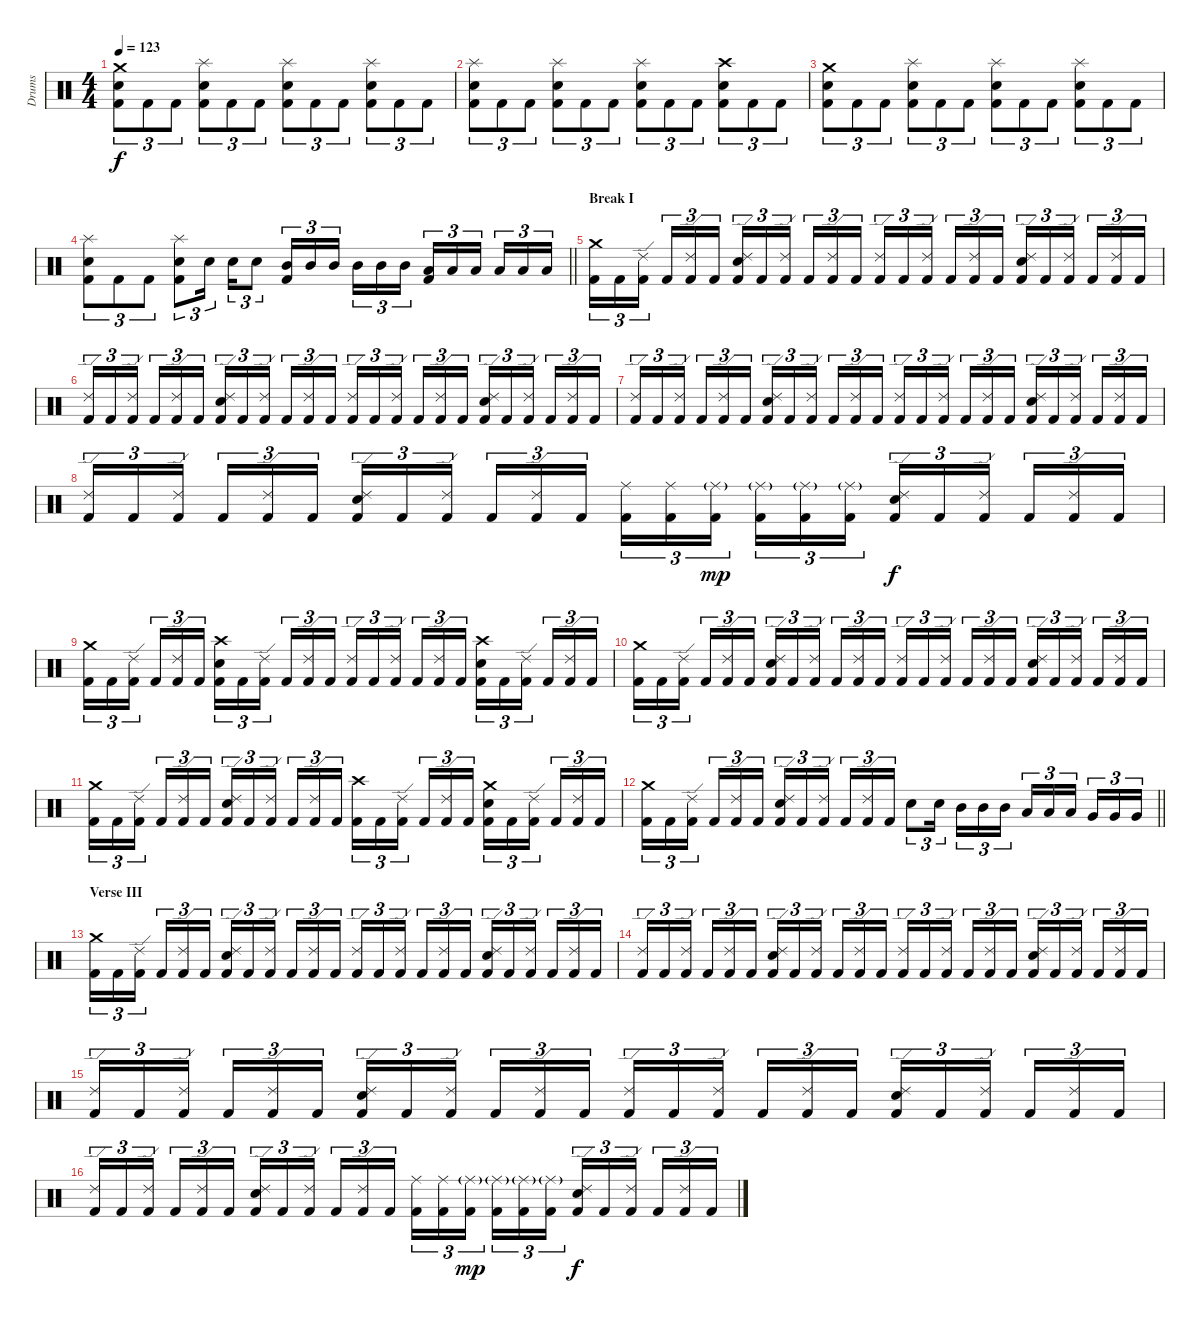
\track ("Drums" "Drums") {instrument percussion}
\staff {score}
\articulation defaults
\ts (4 4)
\tempo 123
\clef neutral
\ks c
("Kick (hit) 2" "Snare (hit) 2" "Crash medium (hit)").8{tu (3 2) dy f} "Kick (hit) 2".8{tu (3 2)} "Kick (hit) 2".8{tu (3 2)} ("Kick (hit) 2" "Snare (hit) 2" "Splash (hit)").8{tu (3 2)} "Kick (hit) 2".8{tu (3 2)} "Kick (hit) 2".8{tu (3 2)} ("Kick (hit) 2" "Snare (hit) 2" "Splash (hit)").8{tu (3 2)} "Kick (hit) 2".8{tu (3 2)} "Kick (hit) 2".8{tu (3 2)} ("Kick (hit) 2" "Snare (hit) 2" "Splash (hit)").8{tu (3 2)} "Kick (hit) 2".8{tu (3 2)} "Kick (hit) 2".8{tu (3 2)} |
("Kick (hit) 2" "Snare (hit) 2" "Splash (hit)").8{tu (3 2)} "Kick (hit) 2".8{tu (3 2)} "Kick (hit) 2".8{tu (3 2)} ("Kick (hit) 2" "Snare (hit) 2" "Splash (hit)").8{tu (3 2)} "Kick (hit) 2".8{tu (3 2)} "Kick (hit) 2".8{tu (3 2)} ("Kick (hit) 2" "Snare (hit) 2" "Splash (hit)").8{tu (3 2)} "Kick (hit) 2".8{tu (3 2)} "Kick (hit) 2".8{tu (3 2)} ("Kick (hit) 2" "Snare (hit) 2" "Crash high (hit)").8{tu (3 2)} "Kick (hit) 2".8{tu (3 2)} "Kick (hit) 2".8{tu (3 2)} |
("Kick (hit) 2" "Snare (hit) 2" "Crash medium (hit)").8{tu (3 2)} "Kick (hit) 2".8{tu (3 2)} "Kick (hit) 2".8{tu (3 2)} ("Kick (hit) 2" "Snare (hit) 2" "Splash (hit)").8{tu (3 2)} "Kick (hit) 2".8{tu (3 2)} "Kick (hit) 2".8{tu (3 2)} ("Kick (hit) 2" "Snare (hit) 2" "Splash (hit)").8{tu (3 2)} "Kick (hit) 2".8{tu (3 2)} "Kick (hit) 2".8{tu (3 2)} ("Kick (hit) 2" "Snare (hit) 2" "Splash (hit)").8{tu (3 2)} "Kick (hit) 2".8{tu (3 2)} "Kick (hit) 2".8{tu (3 2)} |
\barLineRight lightlight
("Kick (hit) 2" "Snare (hit) 2" "Splash (hit)").8{tu (3 2)} "Kick (hit) 2".8{tu (3 2)} "Kick (hit) 2".8{tu (3 2)} ("Kick (hit) 2" "Snare (hit) 2" "Splash (hit)").8{tu (3 2)} "Snare (hit) 2".16{tu (3 2) beam splitsecondary} "Snare (hit) 2".16{tu (3 2)} "Snare (hit) 2".8{tu (3 2)} ("Kick (hit) 2" "Mid Tom (hit)").16{tu (3 2)} "Mid Tom (hit)".16{tu (3 2)} "Mid Tom (hit)".16{tu (3 2) beam splitsecondary} "Mid Tom (hit)".16{tu (3 2)} "Mid Tom (hit)".16{tu (3 2)} "Mid Tom (hit)".16{tu (3 2)} ("Kick (hit) 2" "Low Tom (hit)").16{tu (3 2)} "Low Tom (hit)".16{tu (3 2)} "Low Tom (hit)".16{tu (3 2) beam splitsecondary} "Low Tom (hit)".16{tu (3 2)} "Low Tom (hit)".16{tu (3 2)} "Low Tom (hit)".16{tu (3 2)} |
\section ("" "Break I")
("Kick (hit) 2" "Crash medium (hit)").16{tu (3 2)} "Kick (hit) 2".16{tu (3 2)} ("Kick (hit) 2" "Ride (edge) 2").16{tu (3 2) beam splitsecondary} "Kick (hit) 2".16{tu (3 2)} ("Kick (hit) 2" "Ride (edge) 2").16{tu (3 2)} "Kick (hit) 2".16{tu (3 2)} ("Kick (hit) 2" "Snare (hit) 2" "Ride (edge) 2").16{tu (3 2)} "Kick (hit) 2".16{tu (3 2)} ("Kick (hit) 2" "Ride (edge) 2").16{tu (3 2) beam splitsecondary} "Kick (hit) 2".16{tu (3 2)} ("Kick (hit) 2" "Ride (edge) 2").16{tu (3 2)} "Kick (hit) 2".16{tu (3 2)} ("Kick (hit) 2" "Ride (edge) 2").16{tu (3 2)} "Kick (hit) 2".16{tu (3 2)} ("Kick (hit) 2" "Ride (edge) 2").16{tu (3 2) beam splitsecondary} "Kick (hit) 2".16{tu (3 2)} ("Kick (hit) 2" "Ride (edge) 2").16{tu (3 2)} "Kick (hit) 2".16{tu (3 2)} ("Kick (hit) 2" "Snare (hit) 2" "Ride (edge) 2").16{tu (3 2)} "Kick (hit) 2".16{tu (3 2)} ("Kick (hit) 2" "Ride (edge) 2").16{tu (3 2) beam splitsecondary} "Kick (hit) 2".16{tu (3 2)} ("Kick (hit) 2" "Ride (edge) 2").16{tu (3 2)} "Kick (hit) 2".16{tu (3 2)} |
("Kick (hit) 2" "Ride (edge) 2").16{tu (3 2)} "Kick (hit) 2".16{tu (3 2)} ("Kick (hit) 2" "Ride (edge) 2").16{tu (3 2) beam splitsecondary} "Kick (hit) 2".16{tu (3 2)} ("Kick (hit) 2" "Ride (edge) 2").16{tu (3 2)} "Kick (hit) 2".16{tu (3 2)} ("Kick (hit) 2" "Snare (hit) 2" "Ride (edge) 2").16{tu (3 2)} "Kick (hit) 2".16{tu (3 2)} ("Kick (hit) 2" "Ride (edge) 2").16{tu (3 2) beam splitsecondary} "Kick (hit) 2".16{tu (3 2)} ("Kick (hit) 2" "Ride (edge) 2").16{tu (3 2)} "Kick (hit) 2".16{tu (3 2)} ("Kick (hit) 2" "Ride (edge) 2").16{tu (3 2)} "Kick (hit) 2".16{tu (3 2)} ("Kick (hit) 2" "Ride (edge) 2").16{tu (3 2) beam splitsecondary} "Kick (hit) 2".16{tu (3 2)} ("Kick (hit) 2" "Ride (edge) 2").16{tu (3 2)} "Kick (hit) 2".16{tu (3 2)} ("Kick (hit) 2" "Snare (hit) 2" "Ride (edge) 2").16{tu (3 2)} "Kick (hit) 2".16{tu (3 2)} ("Kick (hit) 2" "Ride (edge) 2").16{tu (3 2) beam splitsecondary} "Kick (hit) 2".16{tu (3 2)} ("Kick (hit) 2" "Ride (edge) 2").16{tu (3 2)} "Kick (hit) 2".16{tu (3 2)} |
("Kick (hit) 2" "Ride (edge) 2").16{tu (3 2)} "Kick (hit) 2".16{tu (3 2)} ("Kick (hit) 2" "Ride (edge) 2").16{tu (3 2) beam splitsecondary} "Kick (hit) 2".16{tu (3 2)} ("Kick (hit) 2" "Ride (edge) 2").16{tu (3 2)} "Kick (hit) 2".16{tu (3 2)} ("Kick (hit) 2" "Snare (hit) 2" "Ride (edge) 2").16{tu (3 2)} "Kick (hit) 2".16{tu (3 2)} ("Kick (hit) 2" "Ride (edge) 2").16{tu (3 2) beam splitsecondary} "Kick (hit) 2".16{tu (3 2)} ("Kick (hit) 2" "Ride (edge) 2").16{tu (3 2)} "Kick (hit) 2".16{tu (3 2)} ("Kick (hit) 2" "Ride (edge) 2").16{tu (3 2)} "Kick (hit) 2".16{tu (3 2)} ("Kick (hit) 2" "Ride (edge) 2").16{tu (3 2) beam splitsecondary} "Kick (hit) 2".16{tu (3 2)} ("Kick (hit) 2" "Ride (edge) 2").16{tu (3 2)} "Kick (hit) 2".16{tu (3 2)} ("Kick (hit) 2" "Snare (hit) 2" "Ride (edge) 2").16{tu (3 2)} "Kick (hit) 2".16{tu (3 2)} ("Kick (hit) 2" "Ride (edge) 2").16{tu (3 2) beam splitsecondary} "Kick (hit) 2".16{tu (3 2)} ("Kick (hit) 2" "Ride (edge) 2").16{tu (3 2)} "Kick (hit) 2".16{tu (3 2)} |
("Kick (hit) 2" "Ride (edge) 2").16{tu (3 2)} "Kick (hit) 2".16{tu (3 2)} ("Kick (hit) 2" "Ride (edge) 2").16{tu (3 2) beam splitsecondary} "Kick (hit) 2".16{tu (3 2)} ("Kick (hit) 2" "Ride (edge) 2").16{tu (3 2)} "Kick (hit) 2".16{tu (3 2)} ("Kick (hit) 2" "Snare (hit) 2" "Ride (edge) 2").16{tu (3 2)} "Kick (hit) 2".16{tu (3 2)} ("Kick (hit) 2" "Ride (edge) 2").16{tu (3 2) beam splitsecondary} "Kick (hit) 2".16{tu (3 2)} ("Kick (hit) 2" "Ride (edge) 2").16{tu (3 2)} "Kick (hit) 2".16{tu (3 2)} ("Kick (hit) 2" "Ride (middle)").16{tu (3 2)} ("Kick (hit) 2" "Ride (middle)").16{tu (3 2)} ("Kick (hit) 2" "Ride (middle)"{g}).16{tu (3 2) dy mp beam splitsecondary} ("Kick (hit) 2" "Ride (middle)"{g}).16{tu (3 2)} ("Kick (hit) 2" "Ride (middle)"{g}).16{tu (3 2)} ("Kick (hit) 2" "Ride (middle)"{g}).16{tu (3 2)} ("Kick (hit) 2" "Snare (hit) 2" "Ride (edge) 2").16{tu (3 2) dy f} "Kick (hit) 2".16{tu (3 2)} ("Kick (hit) 2" "Ride (edge) 2").16{tu (3 2) beam splitsecondary} "Kick (hit) 2".16{tu (3 2)} ("Kick (hit) 2" "Ride (edge) 2").16{tu (3 2)} "Kick (hit) 2".16{tu (3 2)} |
("Kick (hit) 2" "Crash medium (hit)").16{tu (3 2)} "Kick (hit) 2".16{tu (3 2)} ("Kick (hit) 2" "Ride (edge) 2").16{tu (3 2) beam splitsecondary} "Kick (hit) 2".16{tu (3 2)} ("Kick (hit) 2" "Ride (edge) 2").16{tu (3 2)} "Kick (hit) 2".16{tu (3 2)} ("Kick (hit) 2" "Snare (hit) 2" "Crash high (hit)").16{tu (3 2)} "Kick (hit) 2".16{tu (3 2)} ("Kick (hit) 2" "Ride (edge) 2").16{tu (3 2) beam splitsecondary} "Kick (hit) 2".16{tu (3 2)} ("Kick (hit) 2" "Ride (edge) 2").16{tu (3 2)} "Kick (hit) 2".16{tu (3 2)} ("Kick (hit) 2" "Ride (edge) 2").16{tu (3 2)} "Kick (hit) 2".16{tu (3 2)} ("Kick (hit) 2" "Ride (edge) 2").16{tu (3 2) beam splitsecondary} "Kick (hit) 2".16{tu (3 2)} ("Kick (hit) 2" "Ride (edge) 2").16{tu (3 2)} "Kick (hit) 2".16{tu (3 2)} ("Kick (hit) 2" "Snare (hit) 2" "Crash high (hit)").16{tu (3 2)} "Kick (hit) 2".16{tu (3 2)} ("Kick (hit) 2" "Ride (edge) 2").16{tu (3 2) beam splitsecondary} "Kick (hit) 2".16{tu (3 2)} ("Kick (hit) 2" "Ride (edge) 2").16{tu (3 2)} "Kick (hit) 2".16{tu (3 2)} |
("Kick (hit) 2" "Crash medium (hit)").16{tu (3 2)} "Kick (hit) 2".16{tu (3 2)} ("Kick (hit) 2" "Ride (edge) 2").16{tu (3 2) beam splitsecondary} "Kick (hit) 2".16{tu (3 2)} ("Kick (hit) 2" "Ride (edge) 2").16{tu (3 2)} "Kick (hit) 2".16{tu (3 2)} ("Kick (hit) 2" "Snare (hit) 2" "Ride (edge) 2").16{tu (3 2)} "Kick (hit) 2".16{tu (3 2)} ("Kick (hit) 2" "Ride (edge) 2").16{tu (3 2) beam splitsecondary} "Kick (hit) 2".16{tu (3 2)} ("Kick (hit) 2" "Ride (edge) 2").16{tu (3 2)} "Kick (hit) 2".16{tu (3 2)} ("Kick (hit) 2" "Ride (edge) 2").16{tu (3 2)} "Kick (hit) 2".16{tu (3 2)} ("Kick (hit) 2" "Ride (edge) 2").16{tu (3 2) beam splitsecondary} "Kick (hit) 2".16{tu (3 2)} ("Kick (hit) 2" "Ride (edge) 2").16{tu (3 2)} "Kick (hit) 2".16{tu (3 2)} ("Kick (hit) 2" "Snare (hit) 2" "Ride (edge) 2").16{tu (3 2)} "Kick (hit) 2".16{tu (3 2)} ("Kick (hit) 2" "Ride (edge) 2").16{tu (3 2) beam splitsecondary} "Kick (hit) 2".16{tu (3 2)} ("Kick (hit) 2" "Ride (edge) 2").16{tu (3 2)} "Kick (hit) 2".16{tu (3 2)} |
("Kick (hit) 2" "Crash medium (hit)").16{tu (3 2)} "Kick (hit) 2".16{tu (3 2)} ("Kick (hit) 2" "Ride (edge) 2").16{tu (3 2) beam splitsecondary} "Kick (hit) 2".16{tu (3 2)} ("Kick (hit) 2" "Ride (edge) 2").16{tu (3 2)} "Kick (hit) 2".16{tu (3 2)} ("Kick (hit) 2" "Snare (hit) 2" "Ride (edge) 2").16{tu (3 2)} "Kick (hit) 2".16{tu (3 2)} ("Kick (hit) 2" "Ride (edge) 2").16{tu (3 2) beam splitsecondary} "Kick (hit) 2".16{tu (3 2)} ("Kick (hit) 2" "Ride (edge) 2").16{tu (3 2)} "Kick (hit) 2".16{tu (3 2)} ("Kick (hit) 2" "Crash high (hit)").16{tu (3 2)} "Kick (hit) 2".16{tu (3 2)} ("Kick (hit) 2" "Ride (edge) 2").16{tu (3 2) beam splitsecondary} "Kick (hit) 2".16{tu (3 2)} ("Kick (hit) 2" "Ride (edge) 2").16{tu (3 2)} "Kick (hit) 2".16{tu (3 2)} ("Kick (hit) 2" "Snare (hit) 2" "Crash medium (hit)").16{tu (3 2)} "Kick (hit) 2".16{tu (3 2)} ("Kick (hit) 2" "Ride (edge) 2").16{tu (3 2) beam splitsecondary} "Kick (hit) 2".16{tu (3 2)} ("Kick (hit) 2" "Ride (edge) 2").16{tu (3 2)} "Kick (hit) 2".16{tu (3 2)} |
\barLineRight lightlight
("Kick (hit) 2" "Crash medium (hit)").16{tu (3 2)} "Kick (hit) 2".16{tu (3 2)} ("Kick (hit) 2" "Ride (edge) 2").16{tu (3 2) beam splitsecondary} "Kick (hit) 2".16{tu (3 2)} ("Kick (hit) 2" "Ride (edge) 2").16{tu (3 2)} "Kick (hit) 2".16{tu (3 2)} ("Kick (hit) 2" "Snare (hit) 2" "Ride (edge) 2").16{tu (3 2)} "Kick (hit) 2".16{tu (3 2)} ("Kick (hit) 2" "Ride (edge) 2").16{tu (3 2) beam splitsecondary} "Kick (hit) 2".16{tu (3 2)} ("Kick (hit) 2" "Ride (edge) 2").16{tu (3 2)} "Kick (hit) 2".16{tu (3 2)} "Snare (hit) 2".8{tu (3 2)} "Snare (hit) 2".16{tu (3 2) beam splitsecondary} "Mid Tom (hit)".16{tu (3 2)} "Mid Tom (hit)".16{tu (3 2)} "Mid Tom (hit)".16{tu (3 2)} "Low Tom (hit)".16{tu (3 2)} "Low Tom (hit)".16{tu (3 2)} "Low Tom (hit)".16{tu (3 2) beam splitsecondary} "Very Low Tom (hit)".16{tu (3 2)} "Very Low Tom (hit)".16{tu (3 2)} "Very Low Tom (hit)".16{tu (3 2)} |
\section ("" "Verse III")
("Kick (hit) 2" "Crash medium (hit)").16{tu (3 2)} "Kick (hit) 2".16{tu (3 2)} ("Kick (hit) 2" "Ride (edge) 2").16{tu (3 2) beam splitsecondary} "Kick (hit) 2".16{tu (3 2)} ("Kick (hit) 2" "Ride (edge) 2").16{tu (3 2)} "Kick (hit) 2".16{tu (3 2)} ("Kick (hit) 2" "Snare (hit) 2" "Ride (edge) 2").16{tu (3 2)} "Kick (hit) 2".16{tu (3 2)} ("Kick (hit) 2" "Ride (edge) 2").16{tu (3 2) beam splitsecondary} "Kick (hit) 2".16{tu (3 2)} ("Kick (hit) 2" "Ride (edge) 2").16{tu (3 2)} "Kick (hit) 2".16{tu (3 2)} ("Kick (hit) 2" "Ride (edge) 2").16{tu (3 2)} "Kick (hit) 2".16{tu (3 2)} ("Kick (hit) 2" "Ride (edge) 2").16{tu (3 2) beam splitsecondary} "Kick (hit) 2".16{tu (3 2)} ("Kick (hit) 2" "Ride (edge) 2").16{tu (3 2)} "Kick (hit) 2".16{tu (3 2)} ("Kick (hit) 2" "Snare (hit) 2" "Ride (edge) 2").16{tu (3 2)} "Kick (hit) 2".16{tu (3 2)} ("Kick (hit) 2" "Ride (edge) 2").16{tu (3 2) beam splitsecondary} "Kick (hit) 2".16{tu (3 2)} ("Kick (hit) 2" "Ride (edge) 2").16{tu (3 2)} "Kick (hit) 2".16{tu (3 2)} |
("Kick (hit) 2" "Ride (edge) 2").16{tu (3 2)} "Kick (hit) 2".16{tu (3 2)} ("Kick (hit) 2" "Ride (edge) 2").16{tu (3 2) beam splitsecondary} "Kick (hit) 2".16{tu (3 2)} ("Kick (hit) 2" "Ride (edge) 2").16{tu (3 2)} "Kick (hit) 2".16{tu (3 2)} ("Kick (hit) 2" "Snare (hit) 2" "Ride (edge) 2").16{tu (3 2)} "Kick (hit) 2".16{tu (3 2)} ("Kick (hit) 2" "Ride (edge) 2").16{tu (3 2) beam splitsecondary} "Kick (hit) 2".16{tu (3 2)} ("Kick (hit) 2" "Ride (edge) 2").16{tu (3 2)} "Kick (hit) 2".16{tu (3 2)} ("Kick (hit) 2" "Ride (edge) 2").16{tu (3 2)} "Kick (hit) 2".16{tu (3 2)} ("Kick (hit) 2" "Ride (edge) 2").16{tu (3 2) beam splitsecondary} "Kick (hit) 2".16{tu (3 2)} ("Kick (hit) 2" "Ride (edge) 2").16{tu (3 2)} "Kick (hit) 2".16{tu (3 2)} ("Kick (hit) 2" "Snare (hit) 2" "Ride (edge) 2").16{tu (3 2)} "Kick (hit) 2".16{tu (3 2)} ("Kick (hit) 2" "Ride (edge) 2").16{tu (3 2) beam splitsecondary} "Kick (hit) 2".16{tu (3 2)} ("Kick (hit) 2" "Ride (edge) 2").16{tu (3 2)} "Kick (hit) 2".16{tu (3 2)} |
("Kick (hit) 2" "Ride (edge) 2").16{tu (3 2)} "Kick (hit) 2".16{tu (3 2)} ("Kick (hit) 2" "Ride (edge) 2").16{tu (3 2) beam splitsecondary} "Kick (hit) 2".16{tu (3 2)} ("Kick (hit) 2" "Ride (edge) 2").16{tu (3 2)} "Kick (hit) 2".16{tu (3 2)} ("Kick (hit) 2" "Snare (hit) 2" "Ride (edge) 2").16{tu (3 2)} "Kick (hit) 2".16{tu (3 2)} ("Kick (hit) 2" "Ride (edge) 2").16{tu (3 2) beam splitsecondary} "Kick (hit) 2".16{tu (3 2)} ("Kick (hit) 2" "Ride (edge) 2").16{tu (3 2)} "Kick (hit) 2".16{tu (3 2)} ("Kick (hit) 2" "Ride (edge) 2").16{tu (3 2)} "Kick (hit) 2".16{tu (3 2)} ("Kick (hit) 2" "Ride (edge) 2").16{tu (3 2) beam splitsecondary} "Kick (hit) 2".16{tu (3 2)} ("Kick (hit) 2" "Ride (edge) 2").16{tu (3 2)} "Kick (hit) 2".16{tu (3 2)} ("Kick (hit) 2" "Snare (hit) 2" "Ride (edge) 2").16{tu (3 2)} "Kick (hit) 2".16{tu (3 2)} ("Kick (hit) 2" "Ride (edge) 2").16{tu (3 2) beam splitsecondary} "Kick (hit) 2".16{tu (3 2)} ("Kick (hit) 2" "Ride (edge) 2").16{tu (3 2)} "Kick (hit) 2".16{tu (3 2)} |
("Kick (hit) 2" "Ride (edge) 2").16{tu (3 2)} "Kick (hit) 2".16{tu (3 2)} ("Kick (hit) 2" "Ride (edge) 2").16{tu (3 2) beam splitsecondary} "Kick (hit) 2".16{tu (3 2)} ("Kick (hit) 2" "Ride (edge) 2").16{tu (3 2)} "Kick (hit) 2".16{tu (3 2)} ("Kick (hit) 2" "Snare (hit) 2" "Ride (edge) 2").16{tu (3 2)} "Kick (hit) 2".16{tu (3 2)} ("Kick (hit) 2" "Ride (edge) 2").16{tu (3 2) beam splitsecondary} "Kick (hit) 2".16{tu (3 2)} ("Kick (hit) 2" "Ride (edge) 2").16{tu (3 2)} "Kick (hit) 2".16{tu (3 2)} ("Kick (hit) 2" "Ride (middle)").16{tu (3 2)} ("Kick (hit) 2" "Ride (middle)").16{tu (3 2)} ("Kick (hit) 2" "Ride (middle)"{g}).16{tu (3 2) dy mp beam splitsecondary} ("Kick (hit) 2" "Ride (middle)"{g}).16{tu (3 2)} ("Kick (hit) 2" "Ride (middle)"{g}).16{tu (3 2)} ("Kick (hit) 2" "Ride (middle)"{g}).16{tu (3 2)} ("Kick (hit) 2" "Snare (hit) 2" "Ride (edge) 2").16{tu (3 2) dy f} "Kick (hit) 2".16{tu (3 2)} ("Kick (hit) 2" "Ride (edge) 2").16{tu (3 2) beam splitsecondary} "Kick (hit) 2".16{tu (3 2)} ("Kick (hit) 2" "Ride (edge) 2").16{tu (3 2)} "Kick (hit) 2".16{tu (3 2)}
